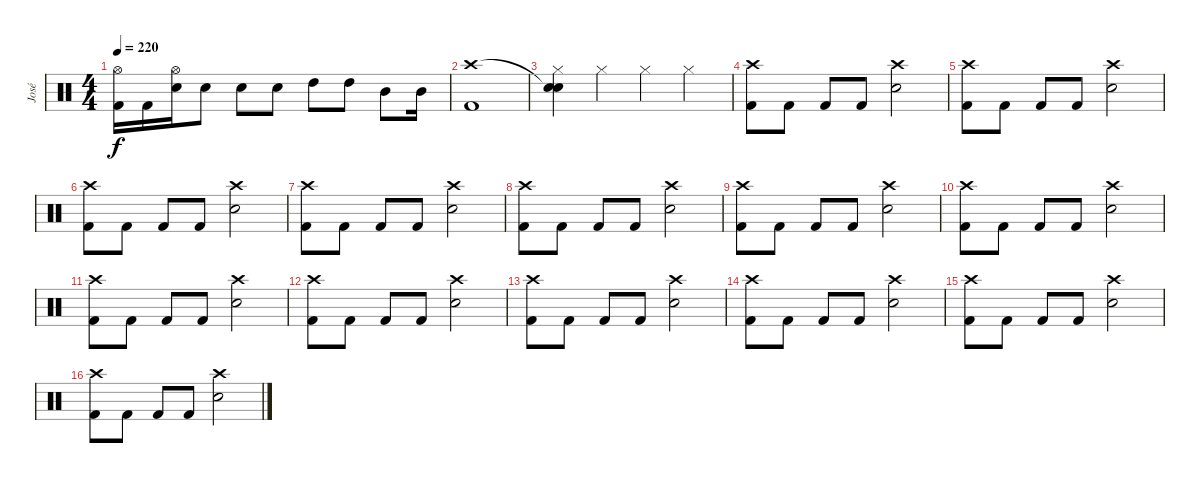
\track ("José" "José") {instrument percussion}
\staff {score}
\articulation defaults
\ts (4 4)
\tempo 220
\clef neutral
\ks c
("Hi-Hat (open)" "Kick (hit) 2").16{dy f} "Kick (hit) 2".16 ("Hi-Hat (open)" "Electric Snare (hit)").16 "Electric Snare (hit)".8 "Electric Snare (hit)".8 "Electric Snare (hit)".8 "High Tom (hit)".8 "High Tom (hit)".8 "Mid Tom (hit)".8 "Mid Tom (hit)".16 |
("Crash high (hit)" "Kick (hit) 2").1 |
("Snare (hit)"{t} "Hi-Hat (closed)" "Snare (hit)").4 "Hi-Hat (closed)".4 "Hi-Hat (closed)".4 "Hi-Hat (closed)".4 |
("Crash high (hit)" "Kick (hit) 2").8 "Kick (hit) 2".8 "Kick (hit) 2".8 "Kick (hit) 2".8 ("Crash high (hit)" "Electric Snare (hit)").2 |
("Crash high (hit)" "Kick (hit) 2").8 "Kick (hit) 2".8 "Kick (hit) 2".8 "Kick (hit) 2".8 ("Crash high (hit)" "Electric Snare (hit)").2 |
("Crash high (hit)" "Kick (hit) 2").8 "Kick (hit) 2".8 "Kick (hit) 2".8 "Kick (hit) 2".8 ("Crash high (hit)" "Electric Snare (hit)").2 |
("Crash high (hit)" "Kick (hit) 2").8 "Kick (hit) 2".8 "Kick (hit) 2".8 "Kick (hit) 2".8 ("Crash high (hit)" "Electric Snare (hit)").2 |
("Crash high (hit)" "Kick (hit) 2").8 "Kick (hit) 2".8 "Kick (hit) 2".8 "Kick (hit) 2".8 ("Crash high (hit)" "Electric Snare (hit)").2 |
("Crash high (hit)" "Kick (hit) 2").8 "Kick (hit) 2".8 "Kick (hit) 2".8 "Kick (hit) 2".8 ("Crash high (hit)" "Electric Snare (hit)").2 |
("Crash high (hit)" "Kick (hit) 2").8 "Kick (hit) 2".8 "Kick (hit) 2".8 "Kick (hit) 2".8 ("Crash high (hit)" "Electric Snare (hit)").2 |
("Crash high (hit)" "Kick (hit) 2").8 "Kick (hit) 2".8 "Kick (hit) 2".8 "Kick (hit) 2".8 ("Crash high (hit)" "Electric Snare (hit)").2 |
("Crash high (hit)" "Kick (hit) 2").8 "Kick (hit) 2".8 "Kick (hit) 2".8 "Kick (hit) 2".8 ("Crash high (hit)" "Electric Snare (hit)").2 |
("Crash high (hit)" "Kick (hit) 2").8 "Kick (hit) 2".8 "Kick (hit) 2".8 "Kick (hit) 2".8 ("Crash high (hit)" "Electric Snare (hit)").2 |
("Crash high (hit)" "Kick (hit) 2").8 "Kick (hit) 2".8 "Kick (hit) 2".8 "Kick (hit) 2".8 ("Crash high (hit)" "Electric Snare (hit)").2 |
("Crash high (hit)" "Kick (hit) 2").8 "Kick (hit) 2".8 "Kick (hit) 2".8 "Kick (hit) 2".8 ("Crash high (hit)" "Electric Snare (hit)").2 |
("Crash high (hit)" "Kick (hit) 2").8 "Kick (hit) 2".8 "Kick (hit) 2".8 "Kick (hit) 2".8 ("Crash high (hit)" "Electric Snare (hit)").2
